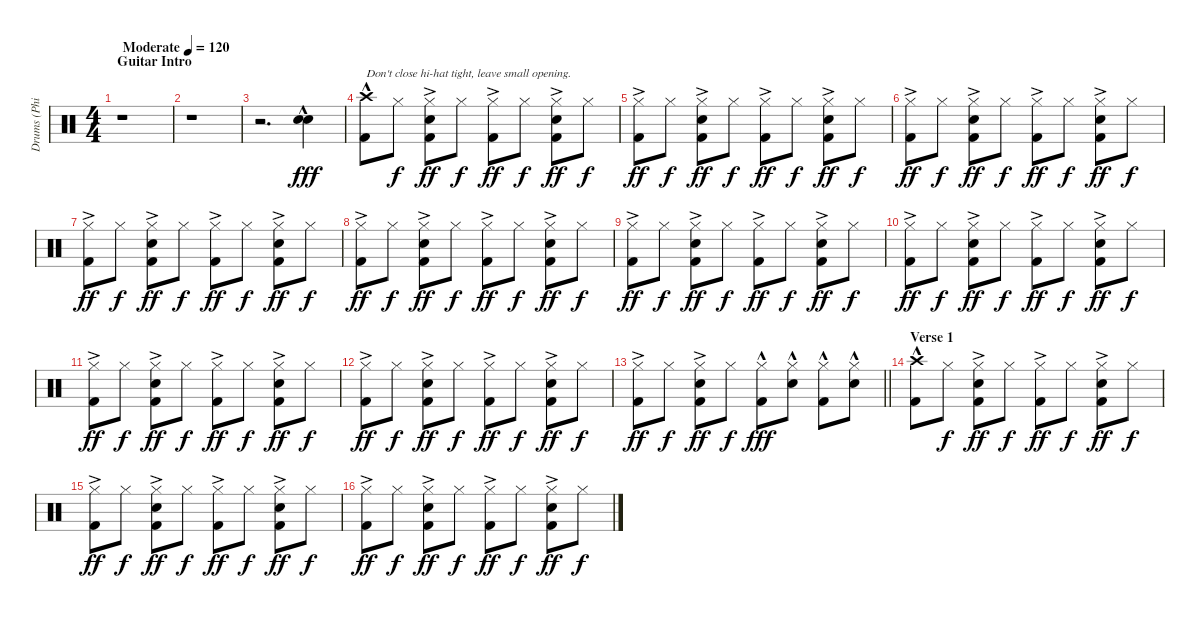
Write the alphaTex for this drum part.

\track ("Drums (Phil Rudd)" "Drums (Phi") {instrument percussion}
\staff {score}
\articulation defaults
\ts (4 4)
\section ("" "Guitar Intro")
\tempo (120 "Moderate")
\clef neutral
\ks c
r.1{dy fff} |
r.1 |
r.2{d} ("Snare (hit) 2"{hac} "Snare (hit) 2"{hac}).4 |
("Kick (hit) 2" "Crash high (hit)"{hac}).8{txt "Don't close hi-hat tight, leave small opening."} "Hi-Hat (closed)".8{dy f} ("Kick (hit) 2" "Snare (hit) 2" "Hi-Hat (closed)"{ac}).8{dy ff} "Hi-Hat (closed)".8{dy f} ("Hi-Hat (closed)"{ac} "Kick (hit) 2").8{dy ff} "Hi-Hat (closed)".8{dy f} ("Kick (hit) 2" "Snare (hit) 2" "Hi-Hat (closed)"{ac}).8{dy ff} "Hi-Hat (closed)".8{dy f} |
("Hi-Hat (closed)"{ac} "Kick (hit) 2").8{dy ff} "Hi-Hat (closed)".8{dy f} ("Kick (hit) 2" "Snare (hit) 2" "Hi-Hat (closed)"{ac}).8{dy ff} "Hi-Hat (closed)".8{dy f} ("Kick (hit) 2" "Hi-Hat (closed)"{ac}).8{dy ff} "Hi-Hat (closed)".8{dy f} ("Kick (hit) 2" "Snare (hit) 2" "Hi-Hat (closed)"{ac}).8{dy ff} "Hi-Hat (closed)".8{dy f} |
("Hi-Hat (closed)"{ac} "Kick (hit) 2").8{dy ff} "Hi-Hat (closed)".8{dy f} ("Kick (hit) 2" "Snare (hit) 2" "Hi-Hat (closed)"{ac}).8{dy ff} "Hi-Hat (closed)".8{dy f} ("Kick (hit) 2" "Hi-Hat (closed)"{ac}).8{dy ff} "Hi-Hat (closed)".8{dy f} ("Kick (hit) 2" "Snare (hit) 2" "Hi-Hat (closed)"{ac}).8{dy ff} "Hi-Hat (closed)".8{dy f} |
("Hi-Hat (closed)"{ac} "Kick (hit) 2").8{dy ff} "Hi-Hat (closed)".8{dy f} ("Kick (hit) 2" "Snare (hit) 2" "Hi-Hat (closed)"{ac}).8{dy ff} "Hi-Hat (closed)".8{dy f} ("Kick (hit) 2" "Hi-Hat (closed)"{ac}).8{dy ff} "Hi-Hat (closed)".8{dy f} ("Kick (hit) 2" "Snare (hit) 2" "Hi-Hat (closed)"{ac}).8{dy ff} "Hi-Hat (closed)".8{dy f} |
("Hi-Hat (closed)"{ac} "Kick (hit) 2").8{dy ff} "Hi-Hat (closed)".8{dy f} ("Kick (hit) 2" "Snare (hit) 2" "Hi-Hat (closed)"{ac}).8{dy ff} "Hi-Hat (closed)".8{dy f} ("Kick (hit) 2" "Hi-Hat (closed)"{ac}).8{dy ff} "Hi-Hat (closed)".8{dy f} ("Kick (hit) 2" "Snare (hit) 2" "Hi-Hat (closed)"{ac}).8{dy ff} "Hi-Hat (closed)".8{dy f} |
("Hi-Hat (closed)"{ac} "Kick (hit) 2").8{dy ff} "Hi-Hat (closed)".8{dy f} ("Kick (hit) 2" "Snare (hit) 2" "Hi-Hat (closed)"{ac}).8{dy ff} "Hi-Hat (closed)".8{dy f} ("Kick (hit) 2" "Hi-Hat (closed)"{ac}).8{dy ff} "Hi-Hat (closed)".8{dy f} ("Kick (hit) 2" "Snare (hit) 2" "Hi-Hat (closed)"{ac}).8{dy ff} "Hi-Hat (closed)".8{dy f} |
("Hi-Hat (closed)"{ac} "Kick (hit) 2").8{dy ff} "Hi-Hat (closed)".8{dy f} ("Kick (hit) 2" "Snare (hit) 2" "Hi-Hat (closed)"{ac}).8{dy ff} "Hi-Hat (closed)".8{dy f} ("Kick (hit) 2" "Hi-Hat (closed)"{ac}).8{dy ff} "Hi-Hat (closed)".8{dy f} ("Kick (hit) 2" "Snare (hit) 2" "Hi-Hat (closed)"{ac}).8{dy ff} "Hi-Hat (closed)".8{dy f} |
("Hi-Hat (closed)"{ac} "Kick (hit) 2").8{dy ff} "Hi-Hat (closed)".8{dy f} ("Kick (hit) 2" "Snare (hit) 2" "Hi-Hat (closed)"{ac}).8{dy ff} "Hi-Hat (closed)".8{dy f} ("Kick (hit) 2" "Hi-Hat (closed)"{ac}).8{dy ff} "Hi-Hat (closed)".8{dy f} ("Kick (hit) 2" "Snare (hit) 2" "Hi-Hat (closed)"{ac}).8{dy ff} "Hi-Hat (closed)".8{dy f} |
("Hi-Hat (closed)"{ac} "Kick (hit) 2").8{dy ff} "Hi-Hat (closed)".8{dy f} ("Kick (hit) 2" "Snare (hit) 2" "Hi-Hat (closed)"{ac}).8{dy ff} "Hi-Hat (closed)".8{dy f} ("Kick (hit) 2" "Hi-Hat (closed)"{ac}).8{dy ff} "Hi-Hat (closed)".8{dy f} ("Kick (hit) 2" "Snare (hit) 2" "Hi-Hat (closed)"{ac}).8{dy ff} "Hi-Hat (closed)".8{dy f} |
\barLineRight lightlight
("Hi-Hat (closed)"{ac} "Kick (hit) 2").8{dy ff} "Hi-Hat (closed)".8{dy f} ("Kick (hit) 2" "Snare (hit) 2" "Hi-Hat (closed)"{ac}).8{dy ff} "Hi-Hat (closed)".8{dy f} ("Kick (hit) 2" "Hi-Hat (closed)"{hac}).8{dy fff} ("Snare (hit) 2" "Hi-Hat (closed)"{hac}).8 ("Kick (hit) 2" "Hi-Hat (closed)"{hac}).8 ("Snare (hit) 2" "Hi-Hat (closed)"{hac}).8 |
\section ("" "Verse 1")
("Kick (hit) 2" "Crash high (hit)"{hac}).8 "Hi-Hat (closed)".8{dy f} ("Kick (hit) 2" "Snare (hit) 2" "Hi-Hat (closed)"{ac}).8{dy ff} "Hi-Hat (closed)".8{dy f} ("Hi-Hat (closed)"{ac} "Kick (hit) 2").8{dy ff} "Hi-Hat (closed)".8{dy f} ("Kick (hit) 2" "Snare (hit) 2" "Hi-Hat (closed)"{ac}).8{dy ff} "Hi-Hat (closed)".8{dy f} |
("Hi-Hat (closed)"{ac} "Kick (hit) 2").8{dy ff} "Hi-Hat (closed)".8{dy f} ("Kick (hit) 2" "Snare (hit) 2" "Hi-Hat (closed)"{ac}).8{dy ff} "Hi-Hat (closed)".8{dy f} ("Kick (hit) 2" "Hi-Hat (closed)"{ac}).8{dy ff} "Hi-Hat (closed)".8{dy f} ("Kick (hit) 2" "Snare (hit) 2" "Hi-Hat (closed)"{ac}).8{dy ff} "Hi-Hat (closed)".8{dy f} |
("Hi-Hat (closed)"{ac} "Kick (hit) 2").8{dy ff} "Hi-Hat (closed)".8{dy f} ("Kick (hit) 2" "Snare (hit) 2" "Hi-Hat (closed)"{ac}).8{dy ff} "Hi-Hat (closed)".8{dy f} ("Kick (hit) 2" "Hi-Hat (closed)"{ac}).8{dy ff} "Hi-Hat (closed)".8{dy f} ("Kick (hit) 2" "Snare (hit) 2" "Hi-Hat (closed)"{ac}).8{dy ff} "Hi-Hat (closed)".8{dy f}
